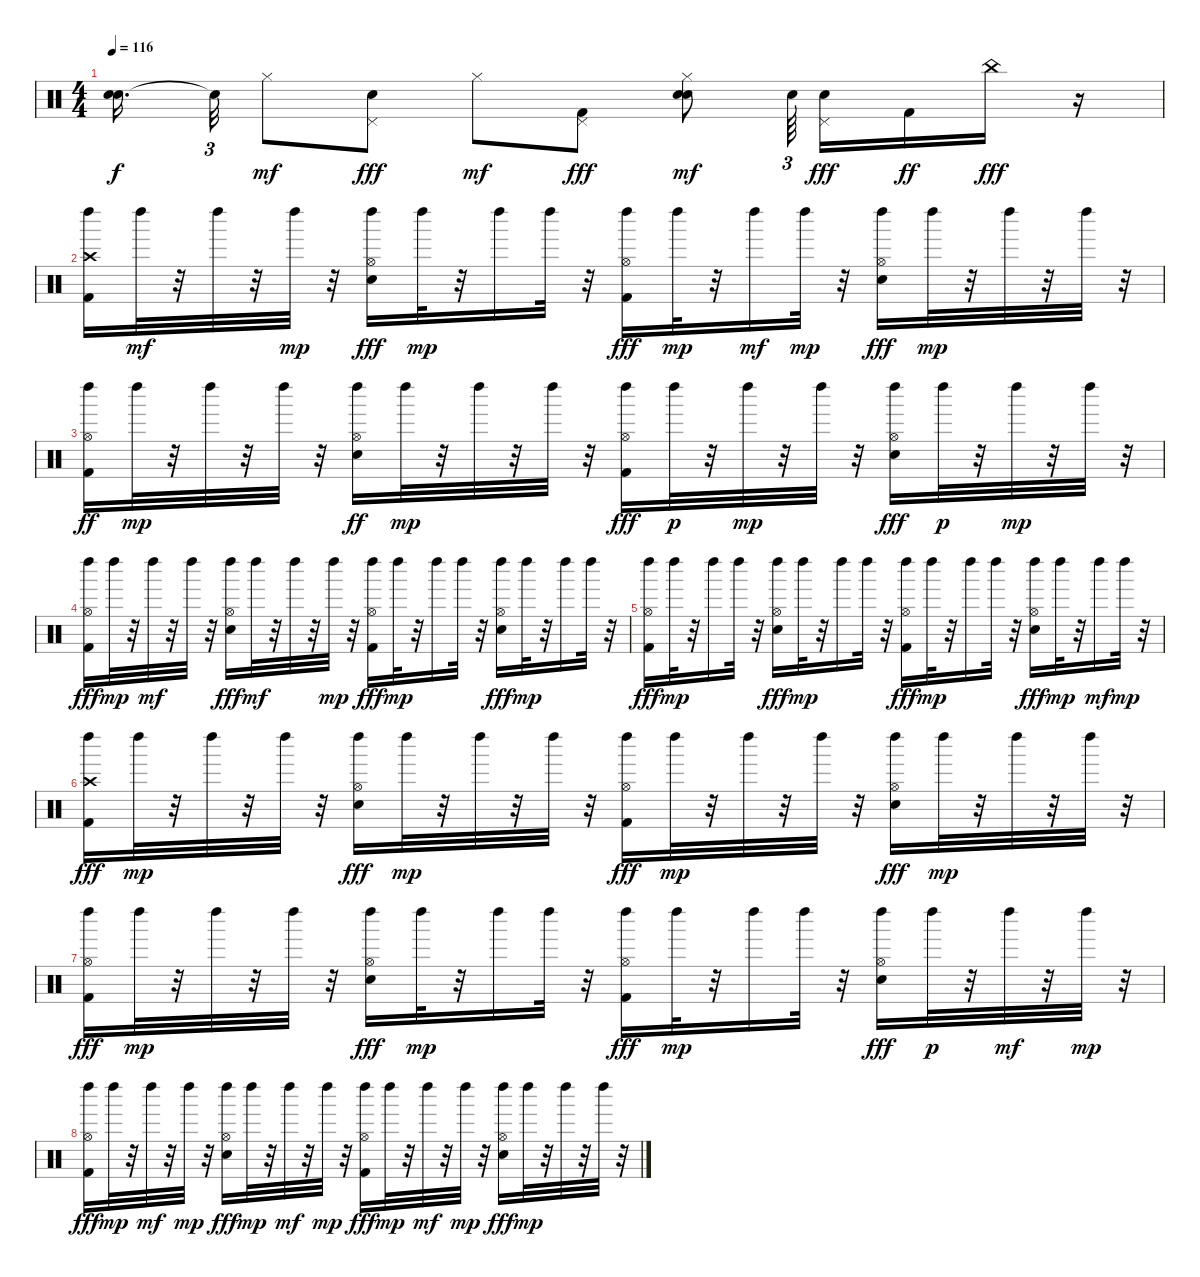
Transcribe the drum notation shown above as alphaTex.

\track "" {instrument percussion}
\staff {score}
\articulation defaults
\ts (4 4)
\tempo 116
\clef neutral
\ks c
("Snare (hit)"{t} "Snare (hit)"{t}).16{d dy f beam splitsecondary} "Snare (hit)"{t}.32{tu (3 2)} "Hi-Hat (closed)".8{dy mf} ("Snare (hit) 2" "Pedal Hi-Hat (hit)").8{dy fff} "Hi-Hat (closed)".8{dy mf} ("Kick (hit) 2" "Pedal Hi-Hat (hit)").8{dy fff} ("Snare (hit) 2" "Snare (hit) 2" "Hi-Hat (closed)").8{dy mf} "Snare (hit) 2".64{tu (3 2)} ("Snare (hit) 2" "Pedal Hi-Hat (hit)").16{dy fff} "Kick (hit) 2".16{dy ff} "China (choke)".16{dy fff} r.16 |
("Left Maraca (hit)" "Kick (hit) 2" "Crash high (hit)").16 "Left Maraca (hit)".32{dy mf} r.32 "Left Maraca (hit)".32 r.32 "Left Maraca (hit)".32{dy mp} r.32 ("Left Maraca (hit)" "Snare (hit) 2" "Hi-Hat (open)").16{dy fff} "Left Maraca (hit)".32{dy mp} r.32 "Left Maraca (hit)".16 "Left Maraca (hit)".32 r.32 ("Left Maraca (hit)" "Kick (hit) 2" "Hi-Hat (open)").16{dy fff} "Left Maraca (hit)".32{dy mp} r.32 "Left Maraca (hit)".16{dy mf} "Left Maraca (hit)".32{dy mp} r.32 ("Left Maraca (hit)" "Snare (hit) 2" "Hi-Hat (open)").16{dy fff} "Left Maraca (hit)".32{dy mp} r.32 "Left Maraca (hit)".32 r.32 "Left Maraca (hit)".32 r.32 |
("Left Maraca (hit)" "Kick (hit) 2" "Hi-Hat (open)").16{dy ff} "Left Maraca (hit)".32{dy mp} r.32 "Left Maraca (hit)".32 r.32 "Left Maraca (hit)".32 r.32 ("Left Maraca (hit)" "Snare (hit) 2" "Hi-Hat (open)").16{dy ff} "Left Maraca (hit)".32{dy mp} r.32 "Left Maraca (hit)".32 r.32 "Left Maraca (hit)".32 r.32 ("Left Maraca (hit)" "Kick (hit) 2" "Hi-Hat (open)").16{dy fff} "Left Maraca (hit)".32{dy p} r.32 "Left Maraca (hit)".32{dy mp} r.32 "Left Maraca (hit)".32 r.32 ("Left Maraca (hit)" "Snare (hit) 2" "Hi-Hat (open)").16{dy fff} "Left Maraca (hit)".32{dy p} r.32 "Left Maraca (hit)".32{dy mp} r.32 "Left Maraca (hit)".32 r.32 |
("Left Maraca (hit)" "Kick (hit) 2" "Hi-Hat (open)").16{dy fff} "Left Maraca (hit)".32{dy mp} r.32 "Left Maraca (hit)".32{dy mf} r.32 "Left Maraca (hit)".32 r.32 ("Left Maraca (hit)" "Snare (hit) 2" "Hi-Hat (open)").16{dy fff} "Left Maraca (hit)".32{dy mf} r.32 "Left Maraca (hit)".32 r.32 "Left Maraca (hit)".32{dy mp} r.32 ("Left Maraca (hit)" "Kick (hit) 2" "Hi-Hat (open)").16{dy fff} "Left Maraca (hit)".32{dy mp} r.32 "Left Maraca (hit)".16 "Left Maraca (hit)".32 r.32 ("Left Maraca (hit)" "Snare (hit) 2" "Hi-Hat (open)").16{dy fff} "Left Maraca (hit)".32{dy mp} r.32 "Left Maraca (hit)".16 "Left Maraca (hit)".32 r.32 |
("Left Maraca (hit)" "Kick (hit) 2" "Hi-Hat (open)").16{dy fff} "Left Maraca (hit)".32{dy mp} r.32 "Left Maraca (hit)".16 "Left Maraca (hit)".32 r.32 ("Left Maraca (hit)" "Snare (hit) 2" "Hi-Hat (open)").16{dy fff} "Left Maraca (hit)".32{dy mp} r.32 "Left Maraca (hit)".16 "Left Maraca (hit)".32 r.32 ("Left Maraca (hit)" "Kick (hit) 2" "Hi-Hat (open)").16{dy fff} "Left Maraca (hit)".32{dy mp} r.32 "Left Maraca (hit)".16 "Left Maraca (hit)".32 r.32 ("Left Maraca (hit)" "Snare (hit) 2" "Hi-Hat (open)").16{dy fff} "Left Maraca (hit)".32{dy mp} r.32 "Left Maraca (hit)".16{dy mf} "Left Maraca (hit)".32{dy mp} r.32 |
("Left Maraca (hit)" "Kick (hit) 2" "Crash high (hit)").16{dy fff} "Left Maraca (hit)".32{dy mp} r.32 "Left Maraca (hit)".32 r.32 "Left Maraca (hit)".32 r.32 ("Left Maraca (hit)" "Snare (hit) 2" "Hi-Hat (open)").16{dy fff} "Left Maraca (hit)".32{dy mp} r.32 "Left Maraca (hit)".32 r.32 "Left Maraca (hit)".32 r.32 ("Left Maraca (hit)" "Kick (hit) 2" "Hi-Hat (open)").16{dy fff} "Left Maraca (hit)".32{dy mp} r.32 "Left Maraca (hit)".32 r.32 "Left Maraca (hit)".32 r.32 ("Left Maraca (hit)" "Snare (hit) 2" "Hi-Hat (open)").16{dy fff} "Left Maraca (hit)".32{dy mp} r.32 "Left Maraca (hit)".32 r.32 "Left Maraca (hit)".32 r.32 |
("Left Maraca (hit)" "Kick (hit) 2" "Hi-Hat (open)").16{dy fff} "Left Maraca (hit)".32{dy mp} r.32 "Left Maraca (hit)".32 r.32 "Left Maraca (hit)".32 r.32 ("Left Maraca (hit)" "Snare (hit) 2" "Hi-Hat (open)").16{dy fff} "Left Maraca (hit)".32{dy mp} r.32 "Left Maraca (hit)".16 "Left Maraca (hit)".32 r.32 ("Left Maraca (hit)" "Kick (hit) 2" "Hi-Hat (open)").16{dy fff} "Left Maraca (hit)".32{dy mp} r.32 "Left Maraca (hit)".16 "Left Maraca (hit)".32 r.32 ("Left Maraca (hit)" "Snare (hit) 2" "Hi-Hat (open)").16{dy fff} "Left Maraca (hit)".32{dy p} r.32 "Left Maraca (hit)".32{dy mf} r.32 "Left Maraca (hit)".32{dy mp} r.32 |
("Left Maraca (hit)" "Kick (hit) 2" "Hi-Hat (open)").16{dy fff} "Left Maraca (hit)".32{dy mp} r.32 "Left Maraca (hit)".32{dy mf} r.32 "Left Maraca (hit)".32{dy mp} r.32 ("Left Maraca (hit)" "Snare (hit) 2" "Hi-Hat (open)").16{dy fff} "Left Maraca (hit)".32{dy mp} r.32 "Left Maraca (hit)".32{dy mf} r.32 "Left Maraca (hit)".32{dy mp} r.32 ("Left Maraca (hit)" "Kick (hit) 2" "Hi-Hat (open)").16{dy fff} "Left Maraca (hit)".32{dy mp} r.32 "Left Maraca (hit)".32{dy mf} r.32 "Left Maraca (hit)".32{dy mp} r.32 ("Left Maraca (hit)" "Snare (hit) 2" "Hi-Hat (open)").16{dy fff} "Left Maraca (hit)".32{dy mp} r.32 "Left Maraca (hit)".32 r.32 "Left Maraca (hit)".32 r.32
